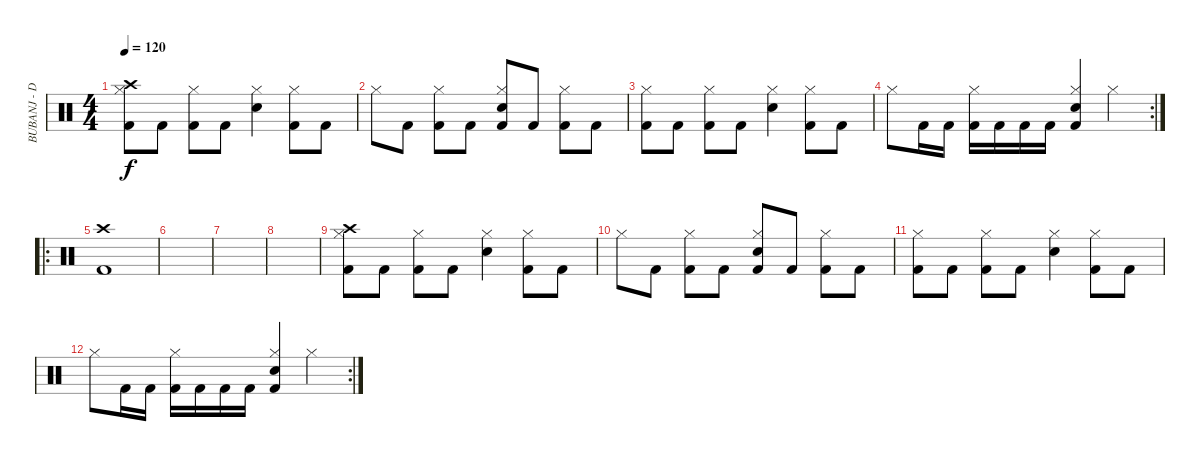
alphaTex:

\track ("BUBANJ - Damir Sinanovic" "BUBANJ - D") {instrument percussion}
\staff {score}
\articulation defaults
\ts (4 4)
\tempo 120
\clef neutral
\ks c
("Kick (hit) 2" "Hi-Hat (closed)" "Crash high (hit)").8{dy f} "Kick (hit) 2".8 ("Kick (hit) 2" "Hi-Hat (closed)").8 "Kick (hit) 2".8 ("Snare (hit) 2" "Hi-Hat (closed)").4 ("Kick (hit) 2" "Hi-Hat (closed)").8 "Kick (hit) 2".8 |
"Hi-Hat (closed)".8 "Kick (hit) 2".8 ("Kick (hit) 2" "Hi-Hat (closed)").8 "Kick (hit) 2".8 ("Kick (hit) 2" "Snare (hit) 2" "Hi-Hat (closed)").8 "Kick (hit) 2".8 ("Kick (hit) 2" "Hi-Hat (closed)").8 "Kick (hit) 2".8 |
("Kick (hit) 2" "Hi-Hat (closed)").8 "Kick (hit) 2".8 ("Kick (hit) 2" "Hi-Hat (closed)").8 "Kick (hit) 2".8 ("Snare (hit) 2" "Hi-Hat (closed)").4 ("Kick (hit) 2" "Hi-Hat (closed)").8 "Kick (hit) 2".8 |
\rc 2 "Hi-Hat (closed)".8 "Kick (hit) 2".16 "Kick (hit) 2".16
("Kick (hit) 2" "Hi-Hat (closed)").16 "Kick (hit) 2".16 "Kick (hit) 2".16 "Kick (hit) 2".16 ("Kick (hit) 2" "Snare (hit) 2" "Hi-Hat (closed)").4 "Hi-Hat (closed)".4 |
\ro
("Kick (hit) 2" "Crash high (hit)").1 |
|
|
|
("Kick (hit) 2" "Hi-Hat (closed)" "Crash high (hit)").8 "Kick (hit) 2".8 ("Kick (hit) 2" "Hi-Hat (closed)").8 "Kick (hit) 2".8 ("Snare (hit) 2" "Hi-Hat (closed)").4 ("Kick (hit) 2" "Hi-Hat (closed)").8 "Kick (hit) 2".8 |
"Hi-Hat (closed)".8 "Kick (hit) 2".8 ("Kick (hit) 2" "Hi-Hat (closed)").8 "Kick (hit) 2".8 ("Kick (hit) 2" "Snare (hit) 2" "Hi-Hat (closed)").8 "Kick (hit) 2".8 ("Kick (hit) 2" "Hi-Hat (closed)").8 "Kick (hit) 2".8 |
("Kick (hit) 2" "Hi-Hat (closed)").8 "Kick (hit) 2".8 ("Kick (hit) 2" "Hi-Hat (closed)").8 "Kick (hit) 2".8 ("Snare (hit) 2" "Hi-Hat (closed)").4 ("Kick (hit) 2" "Hi-Hat (closed)").8 "Kick (hit) 2".8 |
\rc 2 "Hi-Hat (closed)".8 "Kick (hit) 2".16 "Kick (hit) 2".16
("Kick (hit) 2" "Hi-Hat (closed)").16 "Kick (hit) 2".16 "Kick (hit) 2".16 "Kick (hit) 2".16 ("Kick (hit) 2" "Snare (hit) 2" "Hi-Hat (closed)").4 "Hi-Hat (closed)".4
